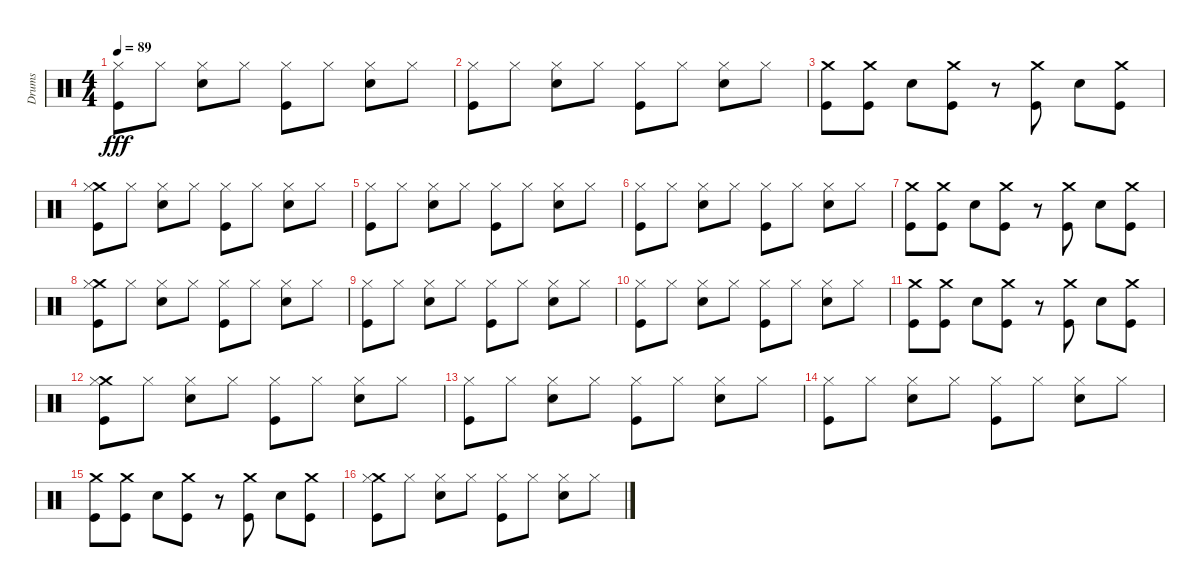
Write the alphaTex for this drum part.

\track ("Drums" "Drums") {instrument percussion}
\staff {score}
\articulation defaults
\ts (4 4)
\tempo 89
\clef neutral
\ks c
("Kick (hit)" "Hi-Hat (closed)").8{dy fff} "Hi-Hat (closed)".8 ("Snare (hit) 2" "Hi-Hat (closed)").8 "Hi-Hat (closed)".8 ("Kick (hit)" "Hi-Hat (closed)").8 "Hi-Hat (closed)".8 ("Snare (hit) 2" "Hi-Hat (closed)").8 "Hi-Hat (closed)".8 |
("Kick (hit)" "Hi-Hat (closed)").8 "Hi-Hat (closed)".8 ("Snare (hit) 2" "Hi-Hat (closed)").8 "Hi-Hat (closed)".8 ("Kick (hit)" "Hi-Hat (closed)").8 "Hi-Hat (closed)".8 ("Snare (hit) 2" "Hi-Hat (closed)").8 "Hi-Hat (closed)".8 |
("Crash medium (hit)" "Kick (hit)").8 ("Crash medium (hit)" "Kick (hit)").8 "Snare (hit) 2".8 ("Crash medium (hit)" "Kick (hit)").8 r.8 ("Crash medium (hit)" "Kick (hit)").8 "Snare (hit) 2".8 ("Crash medium (hit)" "Kick (hit)").8 |
("Crash medium (hit)" "Hi-Hat (closed)" "Kick (hit)").8 "Hi-Hat (closed)".8 ("Snare (hit) 2" "Hi-Hat (closed)").8 "Hi-Hat (closed)".8 ("Kick (hit)" "Hi-Hat (closed)").8 "Hi-Hat (closed)".8 ("Snare (hit) 2" "Hi-Hat (closed)").8 "Hi-Hat (closed)".8 |
("Kick (hit)" "Hi-Hat (closed)").8 "Hi-Hat (closed)".8 ("Snare (hit) 2" "Hi-Hat (closed)").8 "Hi-Hat (closed)".8 ("Kick (hit)" "Hi-Hat (closed)").8 "Hi-Hat (closed)".8 ("Snare (hit) 2" "Hi-Hat (closed)").8 "Hi-Hat (closed)".8 |
("Kick (hit)" "Hi-Hat (closed)").8 "Hi-Hat (closed)".8 ("Snare (hit) 2" "Hi-Hat (closed)").8 "Hi-Hat (closed)".8 ("Kick (hit)" "Hi-Hat (closed)").8 "Hi-Hat (closed)".8 ("Snare (hit) 2" "Hi-Hat (closed)").8 "Hi-Hat (closed)".8 |
("Crash medium (hit)" "Kick (hit)").8 ("Crash medium (hit)" "Kick (hit)").8 "Snare (hit) 2".8 ("Crash medium (hit)" "Kick (hit)").8 r.8 ("Crash medium (hit)" "Kick (hit)").8 "Snare (hit) 2".8 ("Crash medium (hit)" "Kick (hit)").8 |
("Crash medium (hit)" "Hi-Hat (closed)" "Kick (hit)").8 "Hi-Hat (closed)".8 ("Snare (hit) 2" "Hi-Hat (closed)").8 "Hi-Hat (closed)".8 ("Kick (hit)" "Hi-Hat (closed)").8 "Hi-Hat (closed)".8 ("Snare (hit) 2" "Hi-Hat (closed)").8 "Hi-Hat (closed)".8 |
("Kick (hit)" "Hi-Hat (closed)").8 "Hi-Hat (closed)".8 ("Snare (hit) 2" "Hi-Hat (closed)").8 "Hi-Hat (closed)".8 ("Kick (hit)" "Hi-Hat (closed)").8 "Hi-Hat (closed)".8 ("Snare (hit) 2" "Hi-Hat (closed)").8 "Hi-Hat (closed)".8 |
("Kick (hit)" "Hi-Hat (closed)").8 "Hi-Hat (closed)".8 ("Snare (hit) 2" "Hi-Hat (closed)").8 "Hi-Hat (closed)".8 ("Kick (hit)" "Hi-Hat (closed)").8 "Hi-Hat (closed)".8 ("Snare (hit) 2" "Hi-Hat (closed)").8 "Hi-Hat (closed)".8 |
("Crash medium (hit)" "Kick (hit)").8 ("Crash medium (hit)" "Kick (hit)").8 "Snare (hit) 2".8 ("Crash medium (hit)" "Kick (hit)").8 r.8 ("Crash medium (hit)" "Kick (hit)").8 "Snare (hit) 2".8 ("Crash medium (hit)" "Kick (hit)").8 |
("Crash medium (hit)" "Hi-Hat (closed)" "Kick (hit)").8 "Hi-Hat (closed)".8 ("Snare (hit) 2" "Hi-Hat (closed)").8 "Hi-Hat (closed)".8 ("Kick (hit)" "Hi-Hat (closed)").8 "Hi-Hat (closed)".8 ("Snare (hit) 2" "Hi-Hat (closed)").8 "Hi-Hat (closed)".8 |
("Kick (hit)" "Hi-Hat (closed)").8 "Hi-Hat (closed)".8 ("Snare (hit) 2" "Hi-Hat (closed)").8 "Hi-Hat (closed)".8 ("Kick (hit)" "Hi-Hat (closed)").8 "Hi-Hat (closed)".8 ("Snare (hit) 2" "Hi-Hat (closed)").8 "Hi-Hat (closed)".8 |
("Kick (hit)" "Hi-Hat (closed)").8 "Hi-Hat (closed)".8 ("Snare (hit) 2" "Hi-Hat (closed)").8 "Hi-Hat (closed)".8 ("Kick (hit)" "Hi-Hat (closed)").8 "Hi-Hat (closed)".8 ("Snare (hit) 2" "Hi-Hat (closed)").8 "Hi-Hat (closed)".8 |
("Crash medium (hit)" "Kick (hit)").8 ("Crash medium (hit)" "Kick (hit)").8 "Snare (hit) 2".8 ("Crash medium (hit)" "Kick (hit)").8 r.8 ("Crash medium (hit)" "Kick (hit)").8 "Snare (hit) 2".8 ("Crash medium (hit)" "Kick (hit)").8 |
("Crash medium (hit)" "Hi-Hat (closed)" "Kick (hit)").8 "Hi-Hat (closed)".8 ("Snare (hit) 2" "Hi-Hat (closed)").8 "Hi-Hat (closed)".8 ("Kick (hit)" "Hi-Hat (closed)").8 "Hi-Hat (closed)".8 ("Snare (hit) 2" "Hi-Hat (closed)").8 "Hi-Hat (closed)".8
